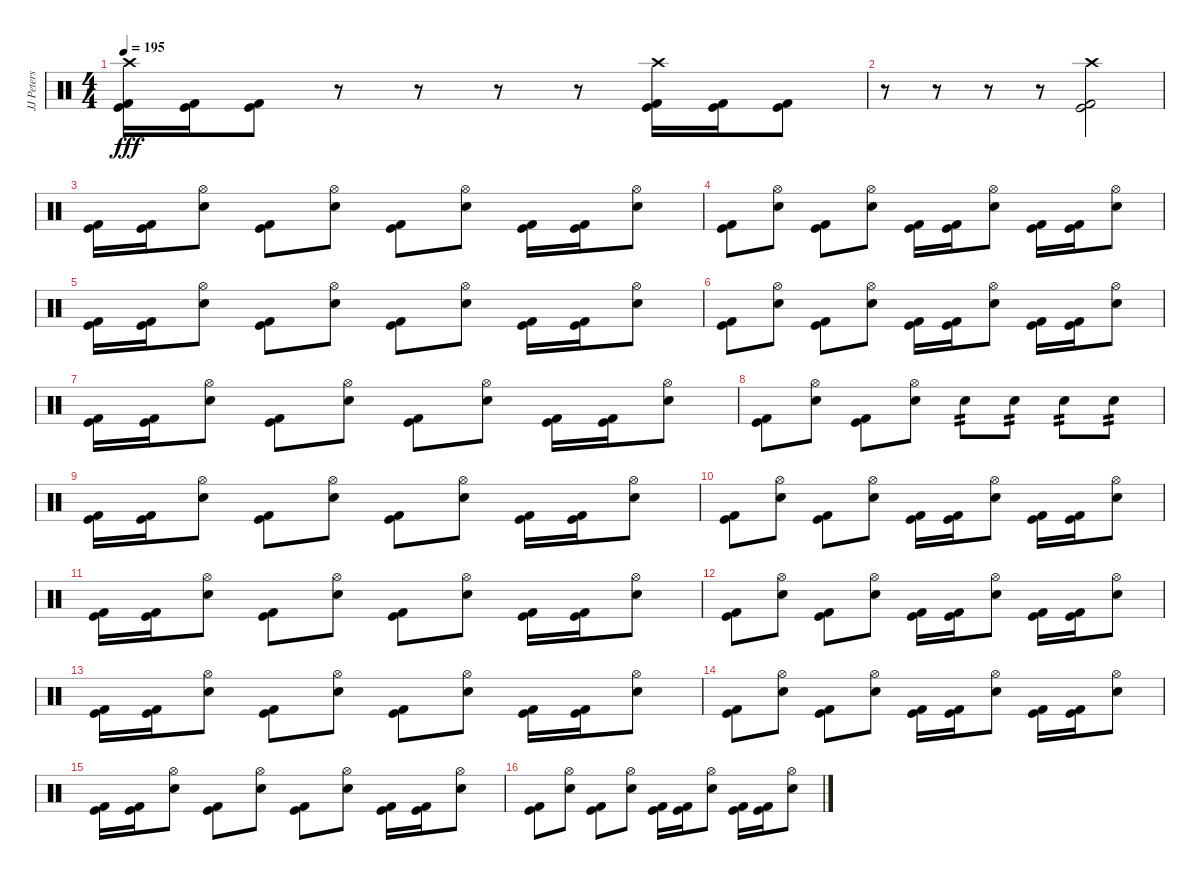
\track ("JJ Peters" "JJ Peters") {instrument percussion}
\staff {score}
\articulation defaults
\ts (4 4)
\tempo 195
\clef neutral
\ks c
("Crash high (hit)" "Kick (hit)" "Kick (hit) 2").16{dy fff} ("Kick (hit)" "Kick (hit) 2").16 ("Kick (hit)" "Kick (hit) 2").8 r.8 r.8 r.8 r.8 ("Crash high (hit)" "Kick (hit)" "Kick (hit) 2").16 ("Kick (hit)" "Kick (hit) 2").16 ("Kick (hit)" "Kick (hit) 2").8 |
r.8 r.8 r.8 r.8 ("Crash high (hit)" "Kick (hit)" "Kick (hit) 2").2 |
("Kick (hit)" "Kick (hit) 2").16 ("Kick (hit)" "Kick (hit) 2").16 ("Hi-Hat (open)" "Electric Snare (hit)").8 ("Kick (hit)" "Kick (hit) 2").8 ("Hi-Hat (open)" "Electric Snare (hit)").8 ("Kick (hit)" "Kick (hit) 2").8 ("Hi-Hat (open)" "Electric Snare (hit)").8 ("Kick (hit)" "Kick (hit) 2").16 ("Kick (hit)" "Kick (hit) 2").16 ("Hi-Hat (open)" "Electric Snare (hit)").8 |
("Kick (hit)" "Kick (hit) 2").8 ("Hi-Hat (open)" "Electric Snare (hit)").8 ("Kick (hit)" "Kick (hit) 2").8 ("Hi-Hat (open)" "Electric Snare (hit)").8 ("Kick (hit)" "Kick (hit) 2").16 ("Kick (hit)" "Kick (hit) 2").16 ("Hi-Hat (open)" "Electric Snare (hit)").8 ("Kick (hit)" "Kick (hit) 2").16 ("Kick (hit)" "Kick (hit) 2").16 ("Hi-Hat (open)" "Electric Snare (hit)").8 |
("Kick (hit)" "Kick (hit) 2").16 ("Kick (hit)" "Kick (hit) 2").16 ("Hi-Hat (open)" "Electric Snare (hit)").8 ("Kick (hit)" "Kick (hit) 2").8 ("Hi-Hat (open)" "Electric Snare (hit)").8 ("Kick (hit)" "Kick (hit) 2").8 ("Hi-Hat (open)" "Electric Snare (hit)").8 ("Kick (hit)" "Kick (hit) 2").16 ("Kick (hit)" "Kick (hit) 2").16 ("Hi-Hat (open)" "Electric Snare (hit)").8 |
("Kick (hit)" "Kick (hit) 2").8 ("Hi-Hat (open)" "Electric Snare (hit)").8 ("Kick (hit)" "Kick (hit) 2").8 ("Hi-Hat (open)" "Electric Snare (hit)").8 ("Kick (hit)" "Kick (hit) 2").16 ("Kick (hit)" "Kick (hit) 2").16 ("Hi-Hat (open)" "Electric Snare (hit)").8 ("Kick (hit)" "Kick (hit) 2").16 ("Kick (hit)" "Kick (hit) 2").16 ("Hi-Hat (open)" "Electric Snare (hit)").8 |
("Kick (hit)" "Kick (hit) 2").16 ("Kick (hit)" "Kick (hit) 2").16 ("Hi-Hat (open)" "Electric Snare (hit)").8 ("Kick (hit)" "Kick (hit) 2").8 ("Hi-Hat (open)" "Electric Snare (hit)").8 ("Kick (hit)" "Kick (hit) 2").8 ("Hi-Hat (open)" "Electric Snare (hit)").8 ("Kick (hit)" "Kick (hit) 2").16 ("Kick (hit)" "Kick (hit) 2").16 ("Hi-Hat (open)" "Electric Snare (hit)").8 |
("Kick (hit)" "Kick (hit) 2").8 ("Hi-Hat (open)" "Electric Snare (hit)").8 ("Kick (hit)" "Kick (hit) 2").8 ("Hi-Hat (open)" "Electric Snare (hit)").8 "Electric Snare (hit)".8{tp 2} "Electric Snare (hit)".8{tp 2} "Electric Snare (hit)".8{tp 2} "Electric Snare (hit)".8{tp 2} |
("Kick (hit)" "Kick (hit) 2").16 ("Kick (hit)" "Kick (hit) 2").16 ("Hi-Hat (open)" "Electric Snare (hit)").8 ("Kick (hit)" "Kick (hit) 2").8 ("Hi-Hat (open)" "Electric Snare (hit)").8 ("Kick (hit)" "Kick (hit) 2").8 ("Hi-Hat (open)" "Electric Snare (hit)").8 ("Kick (hit)" "Kick (hit) 2").16 ("Kick (hit)" "Kick (hit) 2").16 ("Hi-Hat (open)" "Electric Snare (hit)").8 |
("Kick (hit)" "Kick (hit) 2").8 ("Hi-Hat (open)" "Electric Snare (hit)").8 ("Kick (hit)" "Kick (hit) 2").8 ("Hi-Hat (open)" "Electric Snare (hit)").8 ("Kick (hit)" "Kick (hit) 2").16 ("Kick (hit)" "Kick (hit) 2").16 ("Hi-Hat (open)" "Electric Snare (hit)").8 ("Kick (hit)" "Kick (hit) 2").16 ("Kick (hit)" "Kick (hit) 2").16 ("Hi-Hat (open)" "Electric Snare (hit)").8 |
("Kick (hit)" "Kick (hit) 2").16 ("Kick (hit)" "Kick (hit) 2").16 ("Hi-Hat (open)" "Electric Snare (hit)").8 ("Kick (hit)" "Kick (hit) 2").8 ("Hi-Hat (open)" "Electric Snare (hit)").8 ("Kick (hit)" "Kick (hit) 2").8 ("Hi-Hat (open)" "Electric Snare (hit)").8 ("Kick (hit)" "Kick (hit) 2").16 ("Kick (hit)" "Kick (hit) 2").16 ("Hi-Hat (open)" "Electric Snare (hit)").8 |
("Kick (hit)" "Kick (hit) 2").8 ("Hi-Hat (open)" "Electric Snare (hit)").8 ("Kick (hit)" "Kick (hit) 2").8 ("Hi-Hat (open)" "Electric Snare (hit)").8 ("Kick (hit)" "Kick (hit) 2").16 ("Kick (hit)" "Kick (hit) 2").16 ("Hi-Hat (open)" "Electric Snare (hit)").8 ("Kick (hit)" "Kick (hit) 2").16 ("Kick (hit)" "Kick (hit) 2").16 ("Hi-Hat (open)" "Electric Snare (hit)").8 |
("Kick (hit)" "Kick (hit) 2").16 ("Kick (hit)" "Kick (hit) 2").16 ("Hi-Hat (open)" "Electric Snare (hit)").8 ("Kick (hit)" "Kick (hit) 2").8 ("Hi-Hat (open)" "Electric Snare (hit)").8 ("Kick (hit)" "Kick (hit) 2").8 ("Hi-Hat (open)" "Electric Snare (hit)").8 ("Kick (hit)" "Kick (hit) 2").16 ("Kick (hit)" "Kick (hit) 2").16 ("Hi-Hat (open)" "Electric Snare (hit)").8 |
("Kick (hit)" "Kick (hit) 2").8 ("Hi-Hat (open)" "Electric Snare (hit)").8 ("Kick (hit)" "Kick (hit) 2").8 ("Hi-Hat (open)" "Electric Snare (hit)").8 ("Kick (hit)" "Kick (hit) 2").16 ("Kick (hit)" "Kick (hit) 2").16 ("Hi-Hat (open)" "Electric Snare (hit)").8 ("Kick (hit)" "Kick (hit) 2").16 ("Kick (hit)" "Kick (hit) 2").16 ("Hi-Hat (open)" "Electric Snare (hit)").8 |
("Kick (hit)" "Kick (hit) 2").16 ("Kick (hit)" "Kick (hit) 2").16 ("Hi-Hat (open)" "Electric Snare (hit)").8 ("Kick (hit)" "Kick (hit) 2").8 ("Hi-Hat (open)" "Electric Snare (hit)").8 ("Kick (hit)" "Kick (hit) 2").8 ("Hi-Hat (open)" "Electric Snare (hit)").8 ("Kick (hit)" "Kick (hit) 2").16 ("Kick (hit)" "Kick (hit) 2").16 ("Hi-Hat (open)" "Electric Snare (hit)").8 |
("Kick (hit)" "Kick (hit) 2").8 ("Hi-Hat (open)" "Electric Snare (hit)").8 ("Kick (hit)" "Kick (hit) 2").8 ("Hi-Hat (open)" "Electric Snare (hit)").8 ("Kick (hit)" "Kick (hit) 2").16 ("Kick (hit)" "Kick (hit) 2").16 ("Hi-Hat (open)" "Electric Snare (hit)").8 ("Kick (hit)" "Kick (hit) 2").16 ("Kick (hit)" "Kick (hit) 2").16 ("Hi-Hat (open)" "Electric Snare (hit)").8
